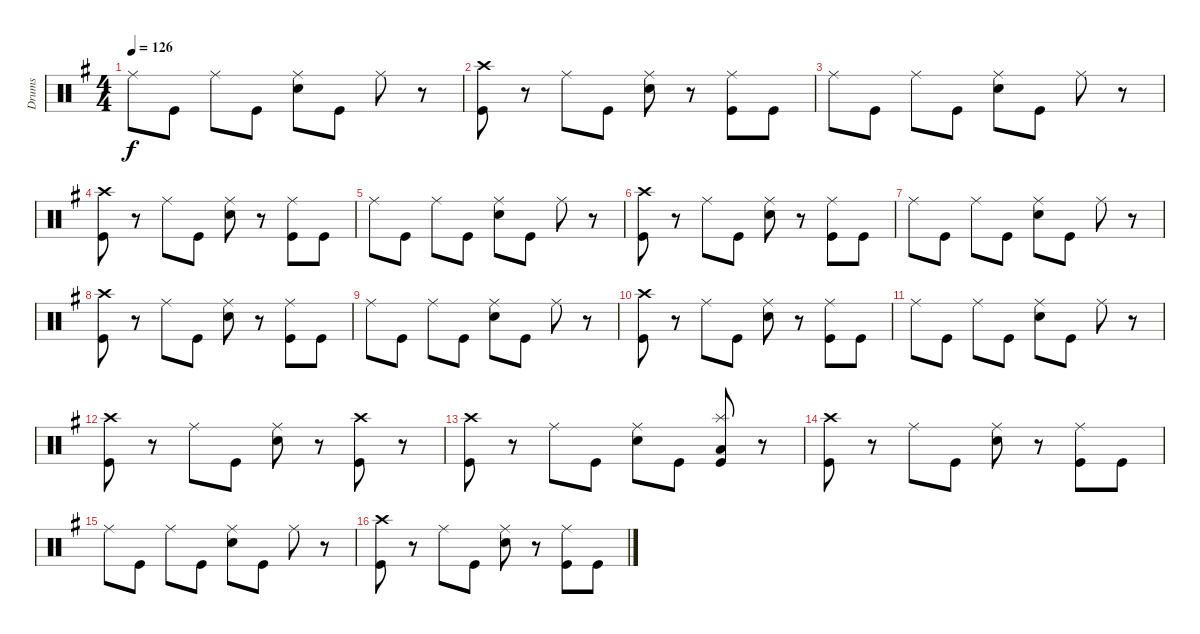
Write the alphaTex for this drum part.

\track ("Drums" "Drums") {instrument percussion}
\staff {score}
\articulation defaults
\ts (4 4)
\tempo 126
\clef neutral
\ks eminor "Ride (middle)".8{dy f} "Kick (hit)".8 "Ride (middle)".8 "Kick (hit)".8
("Ride (middle)" "Snare (hit) 2").8 "Kick (hit)".8 "Ride (middle)".8 r.8 |
("Crash high (hit)" "Kick (hit)").8 r.8 "Ride (middle)".8 "Kick (hit)".8 ("Ride (middle)" "Snare (hit) 2").8 r.8 ("Ride (middle)" "Kick (hit)").8 "Kick (hit)".8 |
"Ride (middle)".8 "Kick (hit)".8 "Ride (middle)".8 "Kick (hit)".8 ("Ride (middle)" "Snare (hit) 2").8 "Kick (hit)".8 "Ride (middle)".8 r.8 |
("Crash high (hit)" "Kick (hit)").8 r.8 "Ride (middle)".8 "Kick (hit)".8 ("Ride (middle)" "Snare (hit) 2").8 r.8 ("Ride (middle)" "Kick (hit)").8 "Kick (hit)".8 |
"Ride (middle)".8 "Kick (hit)".8 "Ride (middle)".8 "Kick (hit)".8 ("Ride (middle)" "Snare (hit) 2").8 "Kick (hit)".8 "Ride (middle)".8 r.8 |
("Crash high (hit)" "Kick (hit)").8 r.8 "Ride (middle)".8 "Kick (hit)".8 ("Ride (middle)" "Snare (hit) 2").8 r.8 ("Ride (middle)" "Kick (hit)").8 "Kick (hit)".8 |
"Ride (middle)".8 "Kick (hit)".8 "Ride (middle)".8 "Kick (hit)".8 ("Ride (middle)" "Snare (hit) 2").8 "Kick (hit)".8 "Ride (middle)".8 r.8 |
("Crash high (hit)" "Kick (hit)").8 r.8 "Ride (middle)".8 "Kick (hit)".8 ("Ride (middle)" "Snare (hit) 2").8 r.8 ("Ride (middle)" "Kick (hit)").8 "Kick (hit)".8 |
"Ride (middle)".8 "Kick (hit)".8 "Ride (middle)".8 "Kick (hit)".8 ("Ride (middle)" "Snare (hit) 2").8 "Kick (hit)".8 "Ride (middle)".8 r.8 |
("Crash high (hit)" "Kick (hit)").8 r.8 "Ride (middle)".8 "Kick (hit)".8 ("Ride (middle)" "Snare (hit) 2").8 r.8 ("Ride (middle)" "Kick (hit)").8 "Kick (hit)".8 |
"Ride (middle)".8 "Kick (hit)".8 "Ride (middle)".8 "Kick (hit)".8 ("Ride (middle)" "Snare (hit) 2").8 "Kick (hit)".8 "Ride (middle)".8 r.8 |
("Crash high (hit)" "Kick (hit)").8 r.8 "Ride (middle)".8 "Kick (hit)".8 ("Ride (middle)" "Snare (hit) 2").8 r.8 ("Crash high (hit)" "Kick (hit)").8 r.8 |
("Crash high (hit)" "Kick (hit)").8 r.8 "Ride (middle)".8 "Kick (hit)".8 ("Ride (middle)" "Snare (hit) 2").8 "Kick (hit)".8 ("Splash (hit)" "Low Floor Tom (hit)" "Kick (hit)").8 r.8 |
("Crash high (hit)" "Kick (hit)").8 r.8 "Ride (middle)".8 "Kick (hit)".8 ("Ride (middle)" "Snare (hit) 2").8 r.8 ("Ride (middle)" "Kick (hit)").8 "Kick (hit)".8 |
"Ride (middle)".8 "Kick (hit)".8 "Ride (middle)".8 "Kick (hit)".8 ("Ride (middle)" "Snare (hit) 2").8 "Kick (hit)".8 "Ride (middle)".8 r.8 |
("Crash high (hit)" "Kick (hit)").8 r.8 "Ride (middle)".8 "Kick (hit)".8 ("Ride (middle)" "Snare (hit) 2").8 r.8 ("Ride (middle)" "Kick (hit)").8 "Kick (hit)".8
